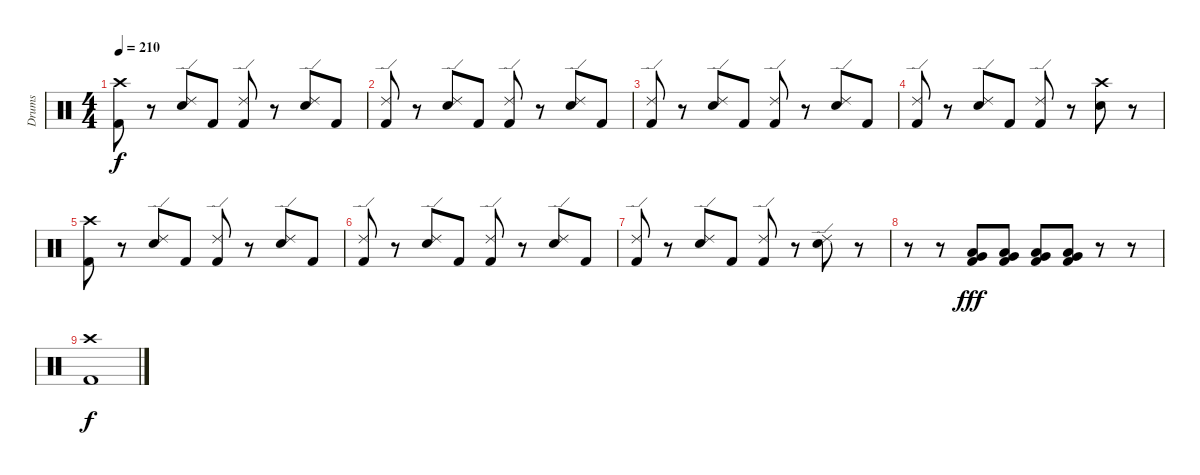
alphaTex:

\track ("Drums" "Drums") {instrument percussion}
\staff {score}
\articulation defaults
\ts (4 4)
\tempo 210
\clef neutral
\ks c
("Crash high (hit)" "Kick (hit) 2").8{dy f} r.8 ("Ride (edge) 2" "Electric Snare (hit)").8 "Kick (hit) 2".8 ("Ride (edge) 2" "Kick (hit) 2").8 r.8 ("Ride (edge) 2" "Electric Snare (hit)").8 "Kick (hit) 2".8 |
("Ride (edge) 2" "Kick (hit) 2").8 r.8 ("Ride (edge) 2" "Electric Snare (hit)").8 "Kick (hit) 2".8 ("Ride (edge) 2" "Kick (hit) 2").8 r.8 ("Ride (edge) 2" "Electric Snare (hit)").8 "Kick (hit) 2".8 |
("Ride (edge) 2" "Kick (hit) 2").8 r.8 ("Ride (edge) 2" "Electric Snare (hit)").8 "Kick (hit) 2".8 ("Ride (edge) 2" "Kick (hit) 2").8 r.8 ("Ride (edge) 2" "Electric Snare (hit)").8 "Kick (hit) 2".8 |
("Ride (edge) 2" "Kick (hit) 2").8 r.8 ("Ride (edge) 2" "Electric Snare (hit)").8 "Kick (hit) 2".8 ("Ride (edge) 2" "Kick (hit) 2").8 r.8 ("Crash high (hit)" "Electric Snare (hit)").8 r.8 |
("Crash high (hit)" "Kick (hit) 2").8 r.8 ("Ride (edge) 2" "Electric Snare (hit)").8 "Kick (hit) 2".8 ("Ride (edge) 2" "Kick (hit) 2").8 r.8 ("Ride (edge) 2" "Electric Snare (hit)").8 "Kick (hit) 2".8 |
("Ride (edge) 2" "Kick (hit) 2").8 r.8 ("Ride (edge) 2" "Electric Snare (hit)").8 "Kick (hit) 2".8 ("Ride (edge) 2" "Kick (hit) 2").8 r.8 ("Ride (edge) 2" "Electric Snare (hit)").8 "Kick (hit) 2".8 |
("Ride (edge) 2" "Kick (hit) 2").8 r.8 ("Ride (edge) 2" "Electric Snare (hit)").8 "Kick (hit) 2".8 ("Ride (edge) 2" "Kick (hit) 2").8 r.8 ("Ride (edge) 2" "Electric Snare (hit)").8 r.8 |
r.8 r.8 ("Very Low Tom (hit)" "Low Floor Tom (hit)" "Kick (hit) 2").8{dy fff} ("Very Low Tom (hit)" "Low Floor Tom (hit)" "Kick (hit) 2").8 ("Very Low Tom (hit)" "Low Floor Tom (hit)" "Kick (hit) 2").8 ("Very Low Tom (hit)" "Low Floor Tom (hit)" "Kick (hit) 2").8 r.8 r.8 |
("Crash high (hit)" "Kick (hit) 2").1{dy f}
